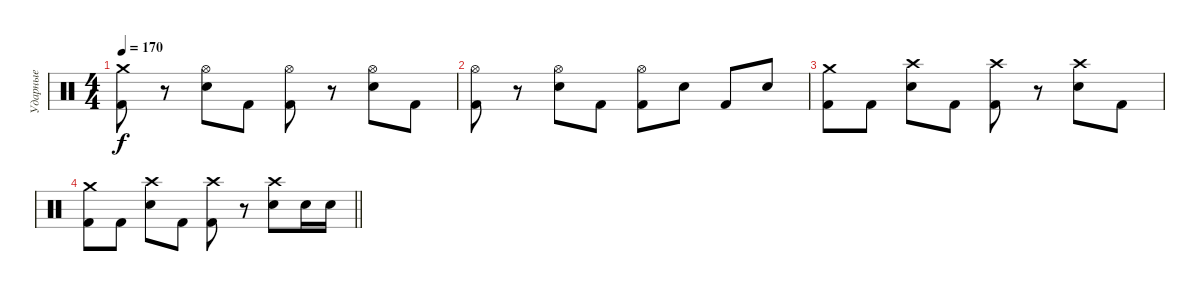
\track ("Ударные" "Ударные") {instrument percussion}
\staff {score}
\articulation defaults
\ts (4 4)
\tempo 170
\clef neutral
\ks c
("Kick (hit) 2" "Crash medium (hit)").8{dy f} r.8 ("Electric Snare (hit)" "Hi-Hat (open)").8 "Kick (hit) 2".8 ("Kick (hit) 2" "Hi-Hat (open)").8 r.8 ("Electric Snare (hit)" "Hi-Hat (open)").8 "Kick (hit) 2".8 |
("Kick (hit) 2" "Hi-Hat (open)").8 r.8 ("Electric Snare (hit)" "Hi-Hat (open)").8 "Kick (hit) 2".8 ("Kick (hit) 2" "Hi-Hat (open)").8 "Electric Snare (hit)".8 "Kick (hit) 2".8 "Electric Snare (hit)".8 |
("Kick (hit) 2" "Crash medium (hit)").8 "Kick (hit) 2".8 ("Electric Snare (hit)" "Crash high (hit)").8 "Kick (hit) 2".8 ("Kick (hit) 2" "Crash high (hit)").8 r.8 ("Electric Snare (hit)" "Crash high (hit)").8 "Kick (hit) 2".8 |
\barLineRight lightlight
("Kick (hit) 2" "Crash medium (hit)").8 "Kick (hit) 2".8 ("Electric Snare (hit)" "Crash high (hit)").8 "Kick (hit) 2".8 ("Kick (hit) 2" "Crash high (hit)").8 r.8 ("Electric Snare (hit)" "Crash high (hit)").8 "Electric Snare (hit)".16 "Electric Snare (hit)".16
